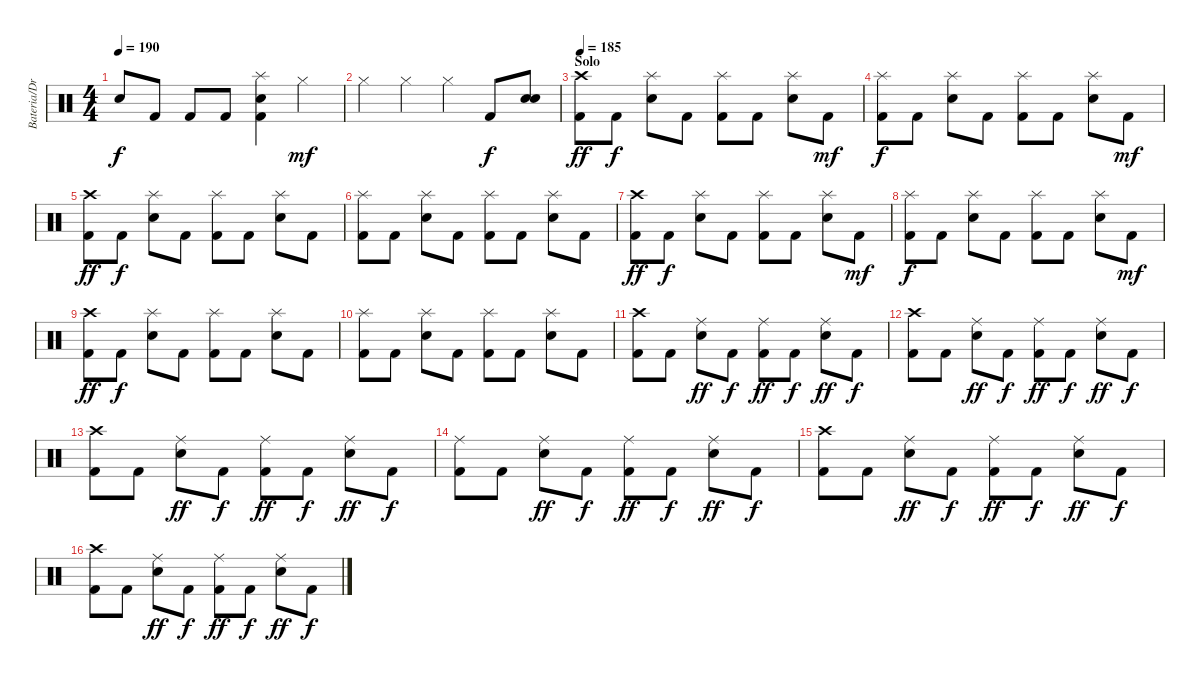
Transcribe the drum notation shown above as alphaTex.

\track ("Bateria/Drums" "Bateria/Dr") {instrument percussion}
\staff {score}
\articulation defaults
\ts (4 4)
\tempo 190
\clef neutral
\ks c "Electric Snare (hit)".8{dy f} "Kick (hit) 2".8 "Kick (hit) 2".8 "Kick (hit) 2".8
("Kick (hit) 2" "Electric Snare (hit)" "Splash (hit)").4{bd 120} "Hi-Hat (closed)".4{dy mf} |
"Hi-Hat (closed)".4 "Hi-Hat (closed)".4 "Hi-Hat (closed)".4 "Kick (hit) 2".8{dy f} ("Electric Snare (hit)" "Electric Snare (hit)").8{bd 480} |
\section ("" "Solo")
\tempo 185
("Kick (hit) 2" "Crash high (hit)").8{dy ff} "Kick (hit) 2".8{dy f} ("Electric Snare (hit)" "Splash (hit)").8 "Kick (hit) 2".8 ("Kick (hit) 2" "Splash (hit)").8 "Kick (hit) 2".8 ("Electric Snare (hit)" "Splash (hit)").8 "Kick (hit) 2".8{dy mf} |
("Kick (hit) 2" "Splash (hit)").8{dy f} "Kick (hit) 2".8 ("Electric Snare (hit)" "Splash (hit)").8 "Kick (hit) 2".8 ("Kick (hit) 2" "Splash (hit)").8 "Kick (hit) 2".8 ("Electric Snare (hit)" "Splash (hit)").8 "Kick (hit) 2".8{dy mf} |
("Kick (hit) 2" "Crash high (hit)").8{dy ff} "Kick (hit) 2".8{dy f} ("Electric Snare (hit)" "Splash (hit)").8 "Kick (hit) 2".8 ("Kick (hit) 2" "Splash (hit)").8 "Kick (hit) 2".8 ("Electric Snare (hit)" "Splash (hit)").8 "Kick (hit) 2".8 |
("Kick (hit) 2" "Splash (hit)").8 "Kick (hit) 2".8 ("Electric Snare (hit)" "Splash (hit)").8 "Kick (hit) 2".8 ("Kick (hit) 2" "Splash (hit)").8 "Kick (hit) 2".8 ("Electric Snare (hit)" "Splash (hit)").8 "Kick (hit) 2".8 |
("Kick (hit) 2" "Crash high (hit)").8{dy ff} "Kick (hit) 2".8{dy f} ("Electric Snare (hit)" "Splash (hit)").8 "Kick (hit) 2".8 ("Kick (hit) 2" "Splash (hit)").8 "Kick (hit) 2".8 ("Electric Snare (hit)" "Splash (hit)").8 "Kick (hit) 2".8{dy mf} |
("Kick (hit) 2" "Splash (hit)").8{dy f} "Kick (hit) 2".8 ("Electric Snare (hit)" "Splash (hit)").8 "Kick (hit) 2".8 ("Kick (hit) 2" "Splash (hit)").8 "Kick (hit) 2".8 ("Electric Snare (hit)" "Splash (hit)").8 "Kick (hit) 2".8{dy mf} |
("Kick (hit) 2" "Crash high (hit)").8{dy ff} "Kick (hit) 2".8{dy f} ("Electric Snare (hit)" "Splash (hit)").8 "Kick (hit) 2".8 ("Kick (hit) 2" "Splash (hit)").8 "Kick (hit) 2".8 ("Electric Snare (hit)" "Splash (hit)").8 "Kick (hit) 2".8 |
("Kick (hit) 2" "Splash (hit)").8 "Kick (hit) 2".8 ("Electric Snare (hit)" "Splash (hit)").8 "Kick (hit) 2".8 ("Kick (hit) 2" "Splash (hit)").8 "Kick (hit) 2".8 ("Electric Snare (hit)" "Splash (hit)").8 "Kick (hit) 2".8 |
("Kick (hit) 2" "Crash high (hit)").8 "Kick (hit) 2".8 ("Electric Snare (hit)" "Ride (middle)").8{dy ff} "Kick (hit) 2".8{dy f} ("Kick (hit) 2" "Ride (middle)").8{dy ff} "Kick (hit) 2".8{dy f} ("Electric Snare (hit)" "Ride (middle)").8{dy ff} "Kick (hit) 2".8{dy f} |
("Kick (hit) 2" "Crash high (hit)").8 "Kick (hit) 2".8 ("Electric Snare (hit)" "Ride (middle)").8{dy ff} "Kick (hit) 2".8{dy f} ("Kick (hit) 2" "Ride (middle)").8{dy ff} "Kick (hit) 2".8{dy f} ("Electric Snare (hit)" "Ride (middle)").8{dy ff} "Kick (hit) 2".8{dy f} |
("Kick (hit) 2" "Crash high (hit)").8 "Kick (hit) 2".8 ("Electric Snare (hit)" "Ride (middle)").8{dy ff} "Kick (hit) 2".8{dy f} ("Kick (hit) 2" "Ride (middle)").8{dy ff} "Kick (hit) 2".8{dy f} ("Electric Snare (hit)" "Ride (middle)").8{dy ff} "Kick (hit) 2".8{dy f} |
("Kick (hit) 2" "Ride (middle)").8 "Kick (hit) 2".8 ("Electric Snare (hit)" "Ride (middle)").8{dy ff} "Kick (hit) 2".8{dy f} ("Kick (hit) 2" "Ride (middle)").8{dy ff} "Kick (hit) 2".8{dy f} ("Electric Snare (hit)" "Ride (middle)").8{dy ff} "Kick (hit) 2".8{dy f} |
("Kick (hit) 2" "Crash high (hit)").8 "Kick (hit) 2".8 ("Electric Snare (hit)" "Ride (middle)").8{dy ff} "Kick (hit) 2".8{dy f} ("Kick (hit) 2" "Ride (middle)").8{dy ff} "Kick (hit) 2".8{dy f} ("Electric Snare (hit)" "Ride (middle)").8{dy ff} "Kick (hit) 2".8{dy f} |
("Kick (hit) 2" "Crash high (hit)").8 "Kick (hit) 2".8 ("Electric Snare (hit)" "Ride (middle)").8{dy ff} "Kick (hit) 2".8{dy f} ("Kick (hit) 2" "Ride (middle)").8{dy ff} "Kick (hit) 2".8{dy f} ("Electric Snare (hit)" "Ride (middle)").8{dy ff} "Kick (hit) 2".8{dy f}
